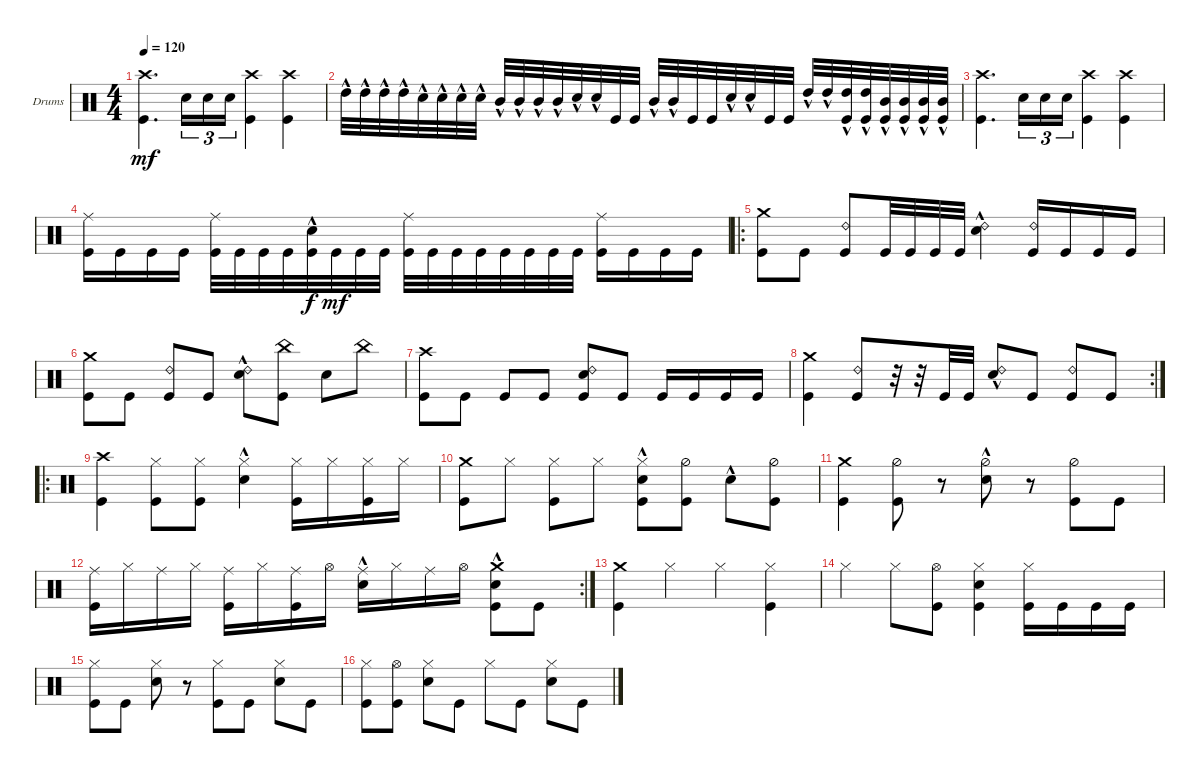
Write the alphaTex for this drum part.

\defaultSystemsLayout 4
\bracketExtendMode groupsimilarinstruments
\firstSystemTrackNameOrientation horizontal
\otherSystemsTrackNameOrientation horizontal
\track ("Drumkit" "Drums") {instrument percussion}
\staff {score}
\articulation defaults
\ts (4 4)
\tempo 120
\clef neutral
\ks c
("Crash high (hit)" "Kick (hit)").4{d dy mf} "Snare (hit) 2".16{tu (3 2)} "Snare (hit) 2".16{tu (3 2)} "Snare (hit) 2".16{tu (3 2)} ("Crash high (hit)" "Kick (hit)").4 ("Crash high (hit)" "Kick (hit)").4 |
"High Tom (hit)"{hac}.32 "High Tom (hit)"{hac}.32 "High Tom (hit)"{hac}.32 "High Tom (hit)"{hac}.32 "Snare (hit) 2"{hac}.32 "Snare (hit) 2"{hac}.32 "Snare (hit) 2"{hac}.32 "Snare (hit) 2"{hac}.32 "Mid Tom (hit)"{hac}.32 "Mid Tom (hit)"{hac}.32 "Mid Tom (hit)"{hac}.32 "Mid Tom (hit)"{hac}.32 "Snare (hit) 2"{hac}.32 "Snare (hit) 2"{hac}.32 "Kick (hit)".32 "Kick (hit)".32 "Mid Tom (hit)"{hac}.32 "Mid Tom (hit)"{hac}.32 "Kick (hit)".32 "Kick (hit)".32 "Snare (hit) 2"{hac}.32 "Snare (hit) 2"{hac}.32 "Kick (hit)".32 "Kick (hit)".32 "High Tom (hit)"{hac}.32 "High Tom (hit)"{hac}.32 ("Kick (hit)" "High Tom (hit)"{hac}).32 ("Kick (hit)" "High Tom (hit)"{hac}).32 ("Kick (hit)" "Mid Tom (hit)"{hac}).32 ("Kick (hit)" "Mid Tom (hit)"{hac}).32 ("Kick (hit)" "Mid Tom (hit)"{hac}).32 ("Kick (hit)" "Mid Tom (hit)"{hac}).32 |
("Crash high (hit)" "Kick (hit)").4{d} "Snare (hit) 2".16{tu (3 2)} "Snare (hit) 2".16{tu (3 2)} "Snare (hit) 2".16{tu (3 2)} ("Crash high (hit)" "Kick (hit)").4 ("Crash high (hit)" "Kick (hit)").4 |
("Kick (hit)" "Ride (middle)").16 "Kick (hit)".16 "Kick (hit)".16 "Kick (hit)".16 ("Kick (hit)" "Ride (middle)").32 "Kick (hit)".32 "Kick (hit)".32 "Kick (hit)".32 ("Kick (hit)" "Snare (hit) 2"{hac}).32{dy f} "Kick (hit)".32{dy mf} "Kick (hit)".32 "Kick (hit)".32 ("Kick (hit)" "Ride (middle)").32 "Kick (hit)".32 "Kick (hit)".32 "Kick (hit)".32 "Kick (hit)".32 "Kick (hit)".32 "Kick (hit)".32 "Kick (hit)".32 ("Kick (hit)" "Ride (middle)").16 "Kick (hit)".16 "Kick (hit)".16 "Kick (hit)".16 |
\ro
("Crash medium (hit)" "Kick (hit)").8 "Kick (hit)".8 ("Kick (hit)" "Ride (bell) 2").8 "Kick (hit)".32 "Kick (hit)".32 "Kick (hit)".32 "Kick (hit)".32 ("Ride (bell) 2" "Snare (hit) 2"{hac}).4 ("Kick (hit)" "Ride (bell) 2").16 "Kick (hit)".16 "Kick (hit)".16 "Kick (hit)".16 |
("Kick (hit)" "Crash medium (hit)").8 "Kick (hit)".8 ("Kick (hit)" "Ride (bell) 2").8 "Kick (hit)".8 ("Ride (bell) 2" "Snare (hit) 2"{hac}).8 ("China (hit)" "Kick (hit)").8 "Snare (hit) 2".8 "China (hit)".8 |
("Crash high (hit)" "Kick (hit)").8 "Kick (hit)".8 "Kick (hit)".8 "Kick (hit)".8 ("Ride (bell) 2" "Snare (hit) 2" "Kick (hit)").8 "Kick (hit)".8 "Kick (hit)".16 "Kick (hit)".16 "Kick (hit)".16 "Kick (hit)".16 |
\rc 2
("Crash medium (hit)" "Kick (hit)").4 ("Kick (hit)" "Ride (bell) 2").8 r.32 r.32 "Kick (hit)".32 "Kick (hit)".32 ("Ride (bell) 2" "Snare (hit) 2"{hac}).8 "Kick (hit)".8 ("Kick (hit)" "Ride (bell) 2").8 "Kick (hit)".8 |
\ro
("Crash high (hit)" "Kick (hit)").4 ("Hi-Hat (closed)" "Kick (hit)").8 ("Hi-Hat (closed)" "Kick (hit)").8 ("Snare (hit) 2"{hac} "Hi-Hat (closed)").4 ("Hi-Hat (closed)" "Kick (hit)").16 "Hi-Hat (closed)".16 ("Hi-Hat (closed)" "Kick (hit)").16 "Hi-Hat (closed)".16 |
("Crash medium (hit)" "Kick (hit)").8 "Hi-Hat (closed)".8 ("Kick (hit)" "Hi-Hat (closed)").8 "Hi-Hat (closed)".8 ("Snare (hit) 2"{hac} "Hi-Hat (closed)" "Kick (hit)").8 ("Hi-Hat (half)" "Kick (hit)").8 "Snare (hit) 2"{hac}.8 ("Hi-Hat (half)" "Kick (hit)").8 |
("Crash medium (hit)" "Kick (hit)").4 ("Hi-Hat (half)" "Kick (hit)").8 r.8 ("Hi-Hat (half)" "Snare (hit) 2"{hac}).8 r.8 ("Kick (hit)" "Hi-Hat (half)").8 "Kick (hit)".8 |
\rc 2
("Ride (middle)" "Kick (hit)").16 "Hi-Hat (closed)".16 "Ride (middle)".16 "Hi-Hat (closed)".16 ("Ride (middle)" "Kick (hit)").16 "Hi-Hat (closed)".16 ("Ride (middle)" "Kick (hit)").16 "Hi-Hat (open)".16 ("Ride (middle)" "Snare (hit) 2"{hac}).16 "Hi-Hat (closed)".16 "Ride (middle)".16 "Hi-Hat (open)".16 ("Crash medium (hit)"{hac} "Kick (hit)" "Snare (hit) 2").8 "Kick (hit)".8 |
("Crash medium (hit)" "Kick (hit)").4 "Hi-Hat (closed)".4 "Hi-Hat (closed)".4 ("Hi-Hat (closed)" "Kick (hit)").4 |
"Hi-Hat (closed)".4 "Hi-Hat (closed)".8 ("Hi-Hat (open)" "Kick (hit)").8 ("Hi-Hat (closed)" "Snare (hit) 2" "Kick (hit)").4 ("Hi-Hat (closed)" "Kick (hit)").16 "Kick (hit)".16 "Kick (hit)".16 "Kick (hit)".16 |
("Hi-Hat (closed)" "Kick (hit)").8 "Kick (hit)".8 ("Snare (hit) 2" "Hi-Hat (closed)").8 r.8 ("Hi-Hat (closed)" "Kick (hit)").8 "Kick (hit)".8 ("Hi-Hat (closed)" "Snare (hit) 2").8 "Kick (hit)".8 |
("Kick (hit)" "Hi-Hat (closed)").8 ("Kick (hit)" "Hi-Hat (open)").8 ("Snare (hit) 2" "Hi-Hat (closed)").8 "Kick (hit)".8 "Hi-Hat (closed)".8 "Kick (hit)".8 ("Hi-Hat (closed)" "Snare (hit) 2").8 "Kick (hit)".8
